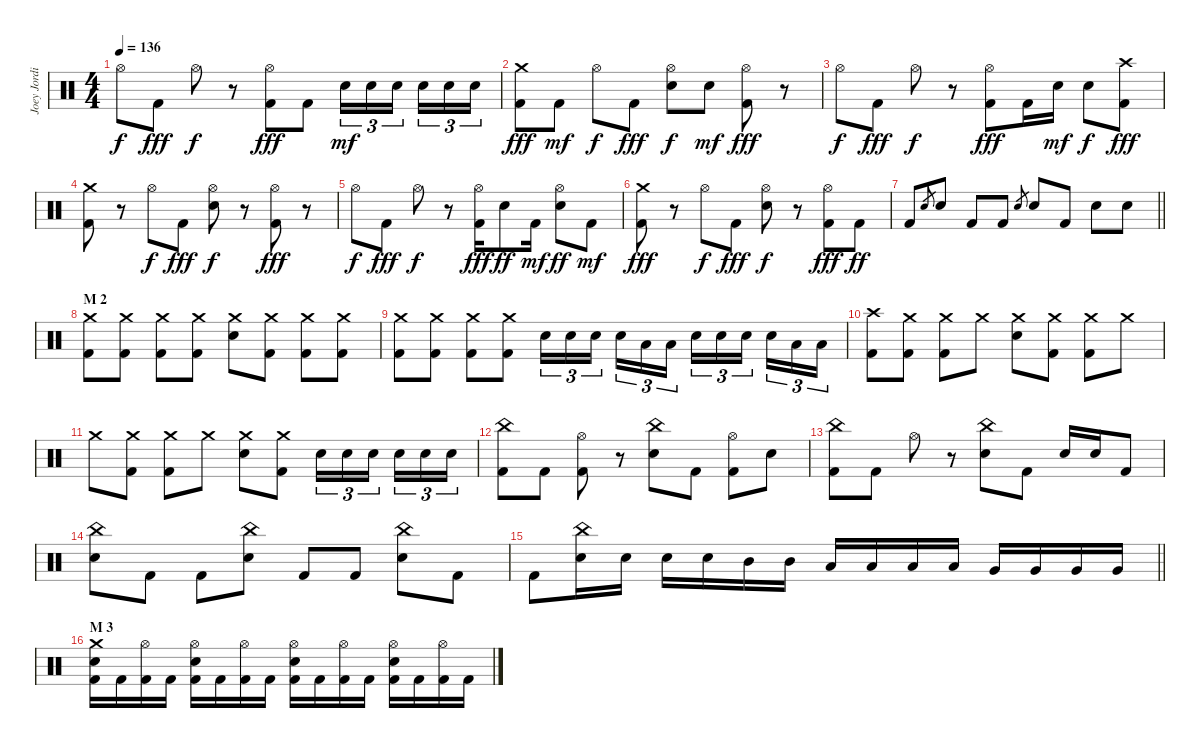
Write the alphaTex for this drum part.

\track ("Joey Jordison" "Joey Jordi") {instrument percussion}
\staff {score}
\articulation defaults
\ts (4 4)
\tempo 136
\clef neutral
\ks c "Hi-Hat (open)".8{dy f} "Kick (hit) 2".8{dy fff} "Hi-Hat (open)".8{dy f}
r.8 ("Hi-Hat (open)" "Kick (hit) 2").8{dy fff} "Kick (hit) 2".8 "Electric Snare (hit)".16{tu (3 2) dy mf} "Electric Snare (hit)".16{tu (3 2)} "Electric Snare (hit)".16{tu (3 2) beam splitsecondary} "Electric Snare (hit)".16{tu (3 2)} "Electric Snare (hit)".16{tu (3 2)} "Electric Snare (hit)".16{tu (3 2)} |
("Crash medium (hit)" "Kick (hit) 2").8{dy fff} "Kick (hit) 2".8{dy mf} "Hi-Hat (open)".8{dy f} "Kick (hit) 2".8{dy fff} ("Hi-Hat (open)" "Electric Snare (hit)").8{dy f} "Electric Snare (hit)".8{dy mf} ("Hi-Hat (open)" "Kick (hit) 2").8{dy fff} r.8 |
"Hi-Hat (open)".8{dy f} "Kick (hit) 2".8{dy fff} "Hi-Hat (open)".8{dy f} r.8 ("Hi-Hat (open)" "Kick (hit) 2").8{dy fff} "Kick (hit) 2".16 "Electric Snare (hit)".16{dy mf} "Electric Snare (hit)".8{dy f} ("Crash high (hit)" "Kick (hit) 2").8{dy fff} |
("Crash medium (hit)" "Kick (hit) 2").8 r.8 "Hi-Hat (open)".8{dy f} "Kick (hit) 2".8{dy fff} ("Hi-Hat (open)" "Electric Snare (hit)").8{dy f} r.8 ("Hi-Hat (open)" "Kick (hit) 2").8{dy fff} r.8 |
"Hi-Hat (open)".8{dy f} "Kick (hit) 2".8{dy fff} "Hi-Hat (open)".8{dy f} r.8 ("Hi-Hat (open)" "Kick (hit) 2").16{dy fff} "Electric Snare (hit)".8{dy ff} "Kick (hit) 2".16{dy mf} ("Hi-Hat (open)" "Electric Snare (hit)").8{dy ff} "Kick (hit) 2".8{dy mf} |
("Crash medium (hit)" "Kick (hit) 2").8{dy fff} r.8 "Hi-Hat (open)".8{dy f} "Kick (hit) 2".8{dy fff} ("Hi-Hat (open)" "Electric Snare (hit)").8{dy f} r.8 ("Hi-Hat (open)" "Kick (hit) 2").8{dy fff} "Kick (hit) 2".8{dy ff} |
\barLineRight lightlight "Kick (hit) 2".8 "Electric Snare (hit)".8{gr} "Electric Snare (hit)".8 "Kick (hit) 2".8 "Kick (hit) 2".8 "Electric Snare (hit)".8{gr} "Electric Snare (hit)".8 "Kick (hit) 2".8 "Electric Snare (hit)".8 "Electric Snare (hit)".8
|
\section ("" "M 2")
("Crash medium (hit)" "Kick (hit) 2").8 ("Crash medium (hit)" "Kick (hit) 2").8 ("Crash medium (hit)" "Kick (hit) 2").8 ("Crash medium (hit)" "Kick (hit) 2").8 ("Crash medium (hit)" "Electric Snare (hit)").8 ("Crash medium (hit)" "Kick (hit) 2").8 ("Crash medium (hit)" "Kick (hit) 2").8 ("Crash medium (hit)" "Kick (hit) 2").8 |
("Crash medium (hit)" "Kick (hit) 2").8 ("Crash medium (hit)" "Kick (hit) 2").8 ("Crash medium (hit)" "Kick (hit) 2").8 ("Crash medium (hit)" "Kick (hit) 2").8 "Electric Snare (hit)".16{tu (3 2)} "Electric Snare (hit)".16{tu (3 2)} "Electric Snare (hit)".16{tu (3 2) beam splitsecondary} "Electric Snare (hit)".16{tu (3 2)} "Low Tom (hit)".16{tu (3 2)} "Low Tom (hit)".16{tu (3 2)} "Electric Snare (hit)".16{tu (3 2)} "Electric Snare (hit)".16{tu (3 2)} "Electric Snare (hit)".16{tu (3 2) beam splitsecondary} "Electric Snare (hit)".16{tu (3 2)} "Low Tom (hit)".16{tu (3 2)} "Low Tom (hit)".16{tu (3 2)} |
("Crash high (hit)" "Kick (hit) 2").8 ("Crash medium (hit)" "Kick (hit) 2").8 ("Crash medium (hit)" "Kick (hit) 2").8 "Crash medium (hit)".8 ("Crash medium (hit)" "Electric Snare (hit)").8 ("Crash medium (hit)" "Kick (hit) 2").8 ("Crash medium (hit)" "Kick (hit) 2").8 "Crash medium (hit)".8 |
"Crash medium (hit)".8 ("Crash medium (hit)" "Kick (hit) 2").8 ("Crash medium (hit)" "Kick (hit) 2").8 "Crash medium (hit)".8 ("Crash medium (hit)" "Electric Snare (hit)").8 ("Crash medium (hit)" "Kick (hit) 2").8 "Electric Snare (hit)".16{tu (3 2)} "Electric Snare (hit)".16{tu (3 2)} "Electric Snare (hit)".16{tu (3 2) beam splitsecondary} "Electric Snare (hit)".16{tu (3 2)} "Electric Snare (hit)".16{tu (3 2)} "Electric Snare (hit)".16{tu (3 2)} |
("China (hit)" "Kick (hit) 2").8 "Kick (hit) 2".8 ("Hi-Hat (open)" "Kick (hit) 2").8 r.8 ("China (hit)" "Electric Snare (hit)").8 "Kick (hit) 2".8 ("Hi-Hat (open)" "Kick (hit) 2").8 "Electric Snare (hit)".8 |
("China (hit)" "Kick (hit) 2").8 "Kick (hit) 2".8 "Hi-Hat (open)".8 r.8 ("China (hit)" "Electric Snare (hit)").8 "Kick (hit) 2".8 "Electric Snare (hit)".16 "Electric Snare (hit)".16 "Kick (hit) 2".8 |
("China (hit)" "Electric Snare (hit)").8 "Kick (hit) 2".8 "Kick (hit) 2".8 ("China (hit)" "Electric Snare (hit)").8 "Kick (hit) 2".8 "Kick (hit) 2".8 ("China (hit)" "Electric Snare (hit)").8 "Kick (hit) 2".8 |
\barLineRight lightlight "Kick (hit) 2".8
("China (hit)" "Electric Snare (hit)").16 "Electric Snare (hit)".16 "Electric Snare (hit)".16 "Electric Snare (hit)".16 "Mid Tom (hit)".16 "Mid Tom (hit)".16 "Low Tom (hit)".16 "Low Tom (hit)".16 "Low Tom (hit)".16 "Low Tom (hit)".16 "Very Low Tom (hit)".16 "Very Low Tom (hit)".16 "Very Low Tom (hit)".16 "Very Low Tom (hit)".16 |
\section ("" "M 3")
("Crash medium (hit)" "Electric Snare (hit)" "Kick (hit) 2").16 "Kick (hit) 2".16 ("Hi-Hat (open)" "Kick (hit) 2").16 "Kick (hit) 2".16 ("Hi-Hat (open)" "Electric Snare (hit)" "Kick (hit) 2").16 "Kick (hit) 2".16 ("Hi-Hat (open)" "Kick (hit) 2").16 "Kick (hit) 2".16 ("Hi-Hat (open)" "Electric Snare (hit)" "Kick (hit) 2").16 "Kick (hit) 2".16 ("Hi-Hat (open)" "Kick (hit) 2").16 "Kick (hit) 2".16 ("Hi-Hat (open)" "Electric Snare (hit)" "Kick (hit) 2").16 "Kick (hit) 2".16 ("Hi-Hat (open)" "Kick (hit) 2").16 "Kick (hit) 2".16
